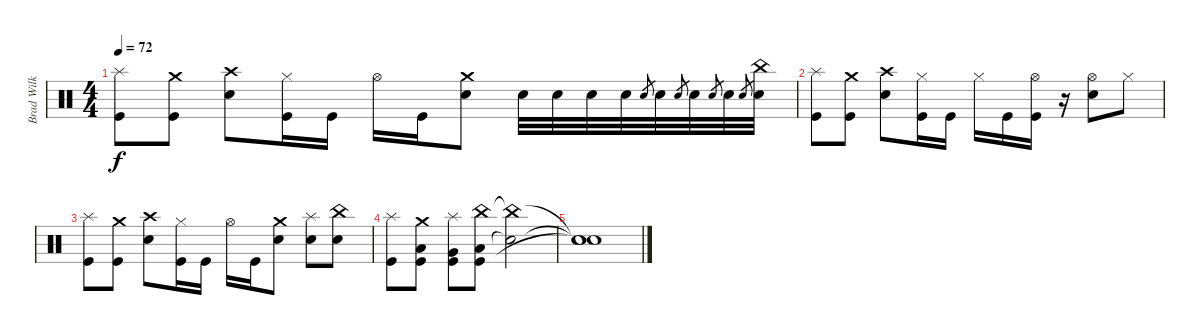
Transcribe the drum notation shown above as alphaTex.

\track ("Brad Wilk (Drums)" "Brad Wilk ") {mute instrument percussion}
\staff {score}
\articulation defaults
\ts (4 4)
\tempo 72
\clef neutral
\ks c
("Splash (hit)" "Kick (hit)").8{dy f} ("Crash medium (hit)" "Kick (hit)").8 ("Crash high (hit)" "Snare (hit) 2").8 ("Hi-Hat (closed)" "Kick (hit)").16 "Kick (hit)".16 "Hi-Hat (open)".16 "Kick (hit)".16 ("Crash medium (hit)" "Snare (hit) 2").8 "Snare (hit) 2".32 "Snare (hit) 2".32 "Snare (hit) 2".32 "Snare (hit) 2".32 "Snare (hit) 2".8{gr} "Snare (hit) 2".32 "Snare (hit) 2".8{gr} "Snare (hit) 2".32 "Snare (hit) 2".8{gr} "Snare (hit) 2".32 "Snare (hit) 2".8{gr} ("China (hit)" "Snare (hit) 2").32 |
("Splash (hit)" "Kick (hit)").8 ("Crash medium (hit)" "Kick (hit)").8 ("Crash high (hit)" "Snare (hit) 2").8 ("Hi-Hat (closed)" "Kick (hit)").16 "Kick (hit)".16 "Hi-Hat (closed)".16 "Kick (hit)".16 ("Hi-Hat (open)" "Kick (hit)").16 r.16 ("Hi-Hat (open)" "Snare (hit) 2").8 "Hi-Hat (closed)".8 |
("Splash (hit)" "Kick (hit)").8 ("Crash medium (hit)" "Kick (hit)").8 ("Crash high (hit)" "Snare (hit) 2").8 ("Hi-Hat (closed)" "Kick (hit)").16 "Kick (hit)".16 "Hi-Hat (open)".16 "Kick (hit)".16 ("Crash medium (hit)" "Snare (hit) 2").8 ("Splash (hit)" "Snare (hit) 2").8 ("China (hit)" "Snare (hit) 2").8 |
("Splash (hit)" "Kick (hit)").8 ("Crash medium (hit)" "Low Tom (hit)" "Kick (hit)").8 ("Splash (hit)" "Very Low Tom (hit)" "Kick (hit)").8 ("China (hit)" "Low Floor Tom (hit)" "Kick (hit)").8 ("China (hit)"{t} "Snare (hit)"{t}).2 |
("Snare (hit)"{t} "Snare (hit)"{t} "Snare (hit)"{t}).1
